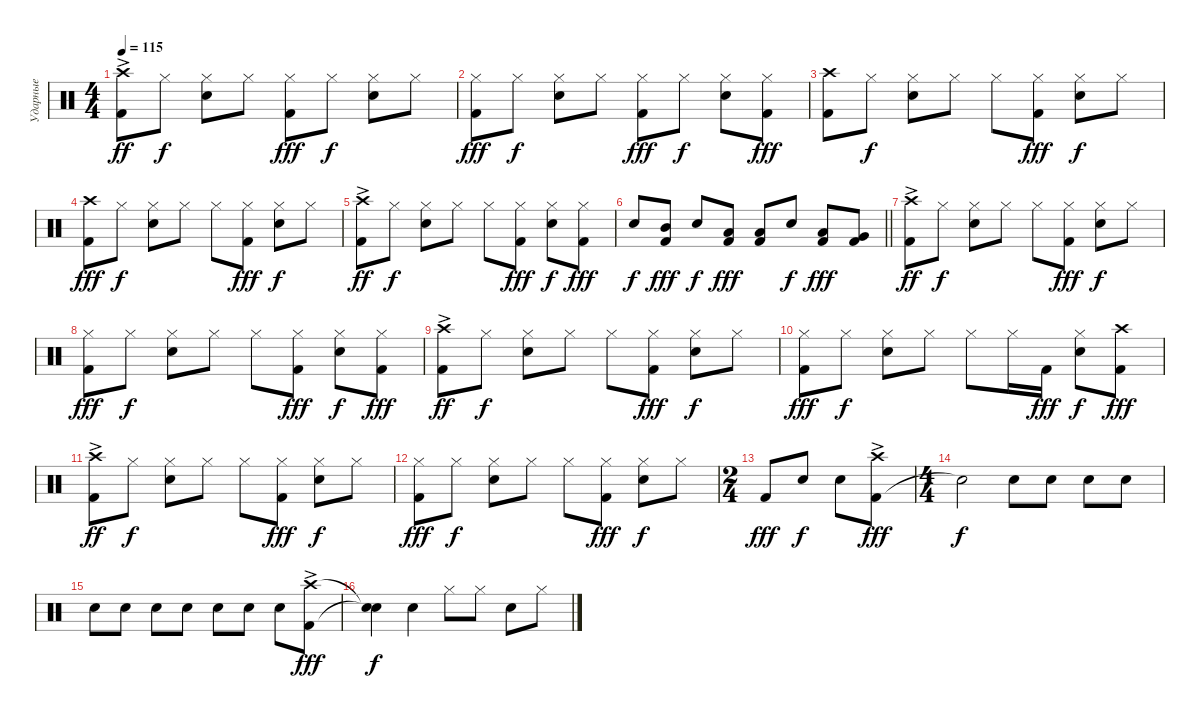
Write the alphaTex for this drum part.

\track ("Ударные" "Ударные") {instrument percussion}
\staff {score}
\articulation defaults
\ts (4 4)
\tempo 115
\clef neutral
\ks c
("Kick (hit) 2" "Crash high (hit)"{ac}).8{dy ff} "Hi-Hat (closed)".8{dy f} ("Snare (hit) 2" "Hi-Hat (closed)").8 "Hi-Hat (closed)".8 ("Kick (hit) 2" "Hi-Hat (closed)").8{dy fff} "Hi-Hat (closed)".8{dy f} ("Snare (hit) 2" "Hi-Hat (closed)").8 "Hi-Hat (closed)".8 |
("Kick (hit) 2" "Hi-Hat (closed)").8{dy fff} "Hi-Hat (closed)".8{dy f} ("Snare (hit) 2" "Hi-Hat (closed)").8 "Hi-Hat (closed)".8 ("Kick (hit) 2" "Hi-Hat (closed)").8{dy fff} "Hi-Hat (closed)".8{dy f} ("Snare (hit) 2" "Hi-Hat (closed)").8 ("Kick (hit) 2" "Hi-Hat (closed)").8{dy fff} |
("Kick (hit) 2" "Crash high (hit)").8 "Hi-Hat (closed)".8{dy f} ("Snare (hit) 2" "Hi-Hat (closed)").8 "Hi-Hat (closed)".8 "Hi-Hat (closed)".8 ("Kick (hit) 2" "Hi-Hat (closed)").8{dy fff} ("Snare (hit) 2" "Hi-Hat (closed)").8{dy f} "Hi-Hat (closed)".8 |
("Kick (hit) 2" "Crash high (hit)").8{dy fff} "Hi-Hat (closed)".8{dy f} ("Snare (hit) 2" "Hi-Hat (closed)").8 "Hi-Hat (closed)".8 "Hi-Hat (closed)".8 ("Kick (hit) 2" "Hi-Hat (closed)").8{dy fff} ("Snare (hit) 2" "Hi-Hat (closed)").8{dy f} "Hi-Hat (closed)".8 |
("Kick (hit) 2" "Crash high (hit)"{ac}).8{dy ff} "Hi-Hat (closed)".8{dy f} ("Snare (hit) 2" "Hi-Hat (closed)").8 "Hi-Hat (closed)".8 "Hi-Hat (closed)".8 ("Kick (hit) 2" "Hi-Hat (closed)").8{dy fff} ("Snare (hit) 2" "Hi-Hat (closed)").8{dy f} ("Kick (hit) 2" "Hi-Hat (closed)").8{dy fff} |
\barLineRight lightlight "Snare (hit) 2".8{dy f}
("Kick (hit) 2" "Mid Tom (hit)").8{dy fff} "Snare (hit) 2".8{dy f} ("Kick (hit) 2" "Low Tom (hit)").8{dy fff} ("Kick (hit) 2" "Low Tom (hit)").8 "Snare (hit) 2".8{dy f} ("Kick (hit) 2" "Low Tom (hit)").8{dy fff} ("Kick (hit) 2" "Very Low Tom (hit)").8 |
("Kick (hit) 2" "Crash high (hit)"{ac}).8{dy ff} "Hi-Hat (closed)".8{dy f} ("Snare (hit) 2" "Hi-Hat (closed)").8 "Hi-Hat (closed)".8 "Hi-Hat (closed)".8 ("Kick (hit) 2" "Hi-Hat (closed)").8{dy fff} ("Snare (hit) 2" "Hi-Hat (closed)").8{dy f} "Hi-Hat (closed)".8 |
("Kick (hit) 2" "Hi-Hat (closed)").8{dy fff} "Hi-Hat (closed)".8{dy f} ("Snare (hit) 2" "Hi-Hat (closed)").8 "Hi-Hat (closed)".8 "Hi-Hat (closed)".8 ("Kick (hit) 2" "Hi-Hat (closed)").8{dy fff} ("Snare (hit) 2" "Hi-Hat (closed)").8{dy f} ("Kick (hit) 2" "Hi-Hat (closed)").8{dy fff} |
("Kick (hit) 2" "Crash high (hit)"{ac}).8{dy ff} "Hi-Hat (closed)".8{dy f} ("Snare (hit) 2" "Hi-Hat (closed)").8 "Hi-Hat (closed)".8 "Hi-Hat (closed)".8 ("Kick (hit) 2" "Hi-Hat (closed)").8{dy fff} ("Snare (hit) 2" "Hi-Hat (closed)").8{dy f} "Hi-Hat (closed)".8 |
("Kick (hit) 2" "Hi-Hat (closed)").8{dy fff} "Hi-Hat (closed)".8{dy f} ("Snare (hit) 2" "Hi-Hat (closed)").8 "Hi-Hat (closed)".8 "Hi-Hat (closed)".8 "Hi-Hat (closed)".16 "Kick (hit) 2".16{dy fff} ("Snare (hit) 2" "Hi-Hat (closed)").8{dy f} ("Kick (hit) 2" "Crash high (hit)").8{dy fff} |
("Kick (hit) 2" "Crash high (hit)"{ac}).8{dy ff} "Hi-Hat (closed)".8{dy f} ("Snare (hit) 2" "Hi-Hat (closed)").8 "Hi-Hat (closed)".8 "Hi-Hat (closed)".8 ("Kick (hit) 2" "Hi-Hat (closed)").8{dy fff} ("Snare (hit) 2" "Hi-Hat (closed)").8{dy f} "Hi-Hat (closed)".8 |
("Kick (hit) 2" "Hi-Hat (closed)").8{dy fff} "Hi-Hat (closed)".8{dy f} ("Snare (hit) 2" "Hi-Hat (closed)").8 "Hi-Hat (closed)".8 "Hi-Hat (closed)".8 ("Kick (hit) 2" "Hi-Hat (closed)").8{dy fff} ("Snare (hit) 2" "Hi-Hat (closed)").8{dy f} "Hi-Hat (closed)".8 |
\ts (2 4)
"Kick (hit) 2".8{dy fff} "Snare (hit) 2".8{dy f} "Snare (hit) 2".8 ("Kick (hit) 2" "Crash high (hit)"{ac}).8{dy fff} |
\ts (4 4)
"Snare (hit)"{t}.2{dy f} "Snare (hit) 2".8 "Snare (hit) 2".8 "Snare (hit) 2".8 "Snare (hit) 2".8 |
"Snare (hit) 2".8 "Snare (hit) 2".8 "Snare (hit) 2".8 "Snare (hit) 2".8 "Snare (hit) 2".8 "Snare (hit) 2".8 "Snare (hit) 2".8 ("Kick (hit) 2" "Crash high (hit)"{ac}).8{dy fff} |
("Snare (hit)"{t} "Snare (hit)"{t}).4{dy f} "Snare (hit) 2".4 "Hi-Hat (closed)".8 "Hi-Hat (closed)".8 "Snare (hit) 2".8 "Hi-Hat (closed)".8
